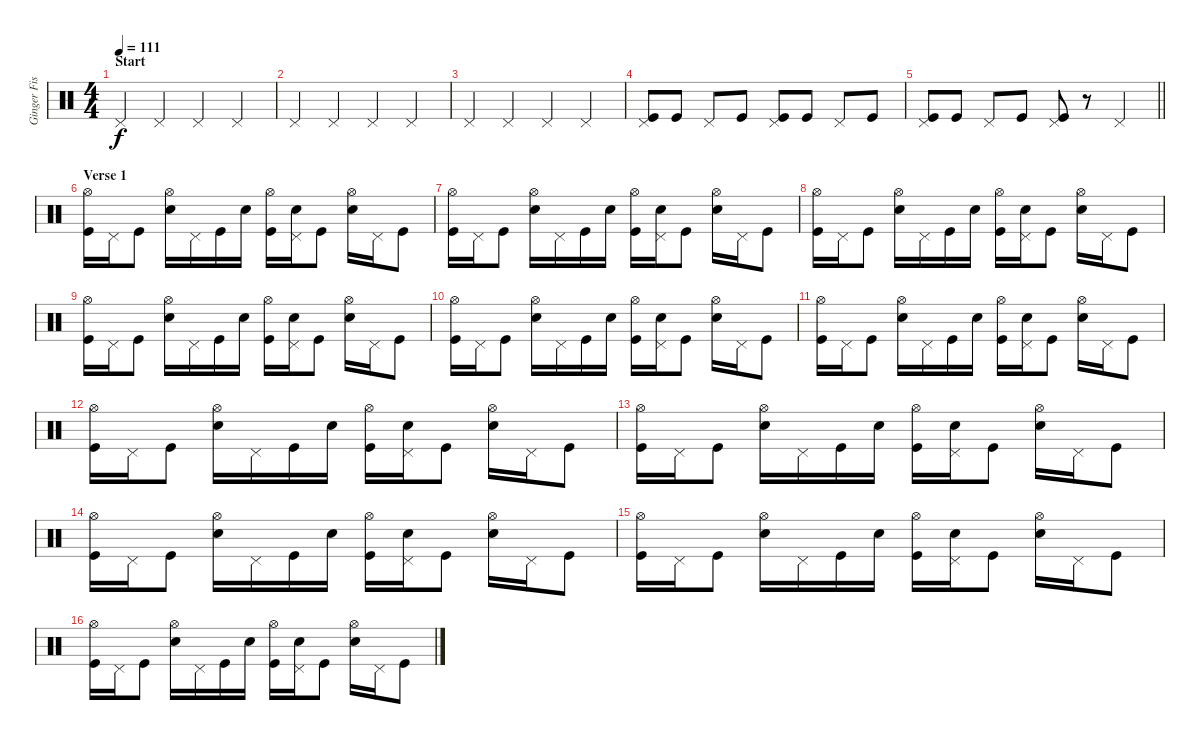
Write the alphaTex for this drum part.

\track ("Ginger Fish" "Ginger Fis") {instrument percussion}
\staff {score}
\articulation defaults
\ts (4 4)
\section ("" "Start")
\tempo 111
\clef neutral
\ks c "Pedal Hi-Hat (hit)".4{dy f} "Pedal Hi-Hat (hit)".4 "Pedal Hi-Hat (hit)".4 "Pedal Hi-Hat (hit)".4
|
"Pedal Hi-Hat (hit)".4 "Pedal Hi-Hat (hit)".4 "Pedal Hi-Hat (hit)".4 "Pedal Hi-Hat (hit)".4 |
"Pedal Hi-Hat (hit)".4 "Pedal Hi-Hat (hit)".4 "Pedal Hi-Hat (hit)".4 "Pedal Hi-Hat (hit)".4 |
("Pedal Hi-Hat (hit)" "Kick (hit)").8 "Kick (hit)".8 "Pedal Hi-Hat (hit)".8 "Kick (hit)".8 ("Pedal Hi-Hat (hit)" "Kick (hit)").8 "Kick (hit)".8 "Pedal Hi-Hat (hit)".8 "Kick (hit)".8 |
\barLineRight lightlight
("Pedal Hi-Hat (hit)" "Kick (hit)").8 "Kick (hit)".8 "Pedal Hi-Hat (hit)".8 "Kick (hit)".8 ("Pedal Hi-Hat (hit)" "Kick (hit)").8 r.8 "Pedal Hi-Hat (hit)".4 |
\section ("" "Verse 1")
("Hi-Hat (open)" "Kick (hit)").16 "Pedal Hi-Hat (hit)".16 "Kick (hit)".8 ("Hi-Hat (open)" "Electric Snare (hit)").16 "Pedal Hi-Hat (hit)".16 "Kick (hit)".16 "Electric Snare (hit)".16 ("Hi-Hat (open)" "Kick (hit)").16 ("Pedal Hi-Hat (hit)" "Electric Snare (hit)").16 "Kick (hit)".8 ("Hi-Hat (open)" "Electric Snare (hit)").16 "Pedal Hi-Hat (hit)".16 "Kick (hit)".8 |
("Hi-Hat (open)" "Kick (hit)").16 "Pedal Hi-Hat (hit)".16 "Kick (hit)".8 ("Hi-Hat (open)" "Electric Snare (hit)").16 "Pedal Hi-Hat (hit)".16 "Kick (hit)".16 "Electric Snare (hit)".16 ("Hi-Hat (open)" "Kick (hit)").16 ("Pedal Hi-Hat (hit)" "Electric Snare (hit)").16 "Kick (hit)".8 ("Hi-Hat (open)" "Electric Snare (hit)").16 "Pedal Hi-Hat (hit)".16 "Kick (hit)".8 |
("Hi-Hat (open)" "Kick (hit)").16 "Pedal Hi-Hat (hit)".16 "Kick (hit)".8 ("Hi-Hat (open)" "Electric Snare (hit)").16 "Pedal Hi-Hat (hit)".16 "Kick (hit)".16 "Electric Snare (hit)".16 ("Hi-Hat (open)" "Kick (hit)").16 ("Pedal Hi-Hat (hit)" "Electric Snare (hit)").16 "Kick (hit)".8 ("Hi-Hat (open)" "Electric Snare (hit)").16 "Pedal Hi-Hat (hit)".16 "Kick (hit)".8 |
("Hi-Hat (open)" "Kick (hit)").16 "Pedal Hi-Hat (hit)".16 "Kick (hit)".8 ("Hi-Hat (open)" "Electric Snare (hit)").16 "Pedal Hi-Hat (hit)".16 "Kick (hit)".16 "Electric Snare (hit)".16 ("Hi-Hat (open)" "Kick (hit)").16 ("Pedal Hi-Hat (hit)" "Electric Snare (hit)").16 "Kick (hit)".8 ("Hi-Hat (open)" "Electric Snare (hit)").16 "Pedal Hi-Hat (hit)".16 "Kick (hit)".8 |
("Hi-Hat (open)" "Kick (hit)").16 "Pedal Hi-Hat (hit)".16 "Kick (hit)".8 ("Hi-Hat (open)" "Electric Snare (hit)").16 "Pedal Hi-Hat (hit)".16 "Kick (hit)".16 "Electric Snare (hit)".16 ("Hi-Hat (open)" "Kick (hit)").16 ("Pedal Hi-Hat (hit)" "Electric Snare (hit)").16 "Kick (hit)".8 ("Hi-Hat (open)" "Electric Snare (hit)").16 "Pedal Hi-Hat (hit)".16 "Kick (hit)".8 |
("Hi-Hat (open)" "Kick (hit)").16 "Pedal Hi-Hat (hit)".16 "Kick (hit)".8 ("Hi-Hat (open)" "Electric Snare (hit)").16 "Pedal Hi-Hat (hit)".16 "Kick (hit)".16 "Electric Snare (hit)".16 ("Hi-Hat (open)" "Kick (hit)").16 ("Pedal Hi-Hat (hit)" "Electric Snare (hit)").16 "Kick (hit)".8 ("Hi-Hat (open)" "Electric Snare (hit)").16 "Pedal Hi-Hat (hit)".16 "Kick (hit)".8 |
("Hi-Hat (open)" "Kick (hit)").16 "Pedal Hi-Hat (hit)".16 "Kick (hit)".8 ("Hi-Hat (open)" "Electric Snare (hit)").16 "Pedal Hi-Hat (hit)".16 "Kick (hit)".16 "Electric Snare (hit)".16 ("Hi-Hat (open)" "Kick (hit)").16 ("Pedal Hi-Hat (hit)" "Electric Snare (hit)").16 "Kick (hit)".8 ("Hi-Hat (open)" "Electric Snare (hit)").16 "Pedal Hi-Hat (hit)".16 "Kick (hit)".8 |
("Hi-Hat (open)" "Kick (hit)").16 "Pedal Hi-Hat (hit)".16 "Kick (hit)".8 ("Hi-Hat (open)" "Electric Snare (hit)").16 "Pedal Hi-Hat (hit)".16 "Kick (hit)".16 "Electric Snare (hit)".16 ("Hi-Hat (open)" "Kick (hit)").16 ("Pedal Hi-Hat (hit)" "Electric Snare (hit)").16 "Kick (hit)".8 ("Hi-Hat (open)" "Electric Snare (hit)").16 "Pedal Hi-Hat (hit)".16 "Kick (hit)".8 |
("Hi-Hat (open)" "Kick (hit)").16 "Pedal Hi-Hat (hit)".16 "Kick (hit)".8 ("Hi-Hat (open)" "Electric Snare (hit)").16 "Pedal Hi-Hat (hit)".16 "Kick (hit)".16 "Electric Snare (hit)".16 ("Hi-Hat (open)" "Kick (hit)").16 ("Pedal Hi-Hat (hit)" "Electric Snare (hit)").16 "Kick (hit)".8 ("Hi-Hat (open)" "Electric Snare (hit)").16 "Pedal Hi-Hat (hit)".16 "Kick (hit)".8 |
("Hi-Hat (open)" "Kick (hit)").16 "Pedal Hi-Hat (hit)".16 "Kick (hit)".8 ("Hi-Hat (open)" "Electric Snare (hit)").16 "Pedal Hi-Hat (hit)".16 "Kick (hit)".16 "Electric Snare (hit)".16 ("Hi-Hat (open)" "Kick (hit)").16 ("Pedal Hi-Hat (hit)" "Electric Snare (hit)").16 "Kick (hit)".8 ("Hi-Hat (open)" "Electric Snare (hit)").16 "Pedal Hi-Hat (hit)".16 "Kick (hit)".8 |
("Hi-Hat (open)" "Kick (hit)").16 "Pedal Hi-Hat (hit)".16 "Kick (hit)".8 ("Hi-Hat (open)" "Electric Snare (hit)").16 "Pedal Hi-Hat (hit)".16 "Kick (hit)".16 "Electric Snare (hit)".16 ("Hi-Hat (open)" "Kick (hit)").16 ("Pedal Hi-Hat (hit)" "Electric Snare (hit)").16 "Kick (hit)".8 ("Hi-Hat (open)" "Electric Snare (hit)").16 "Pedal Hi-Hat (hit)".16 "Kick (hit)".8
